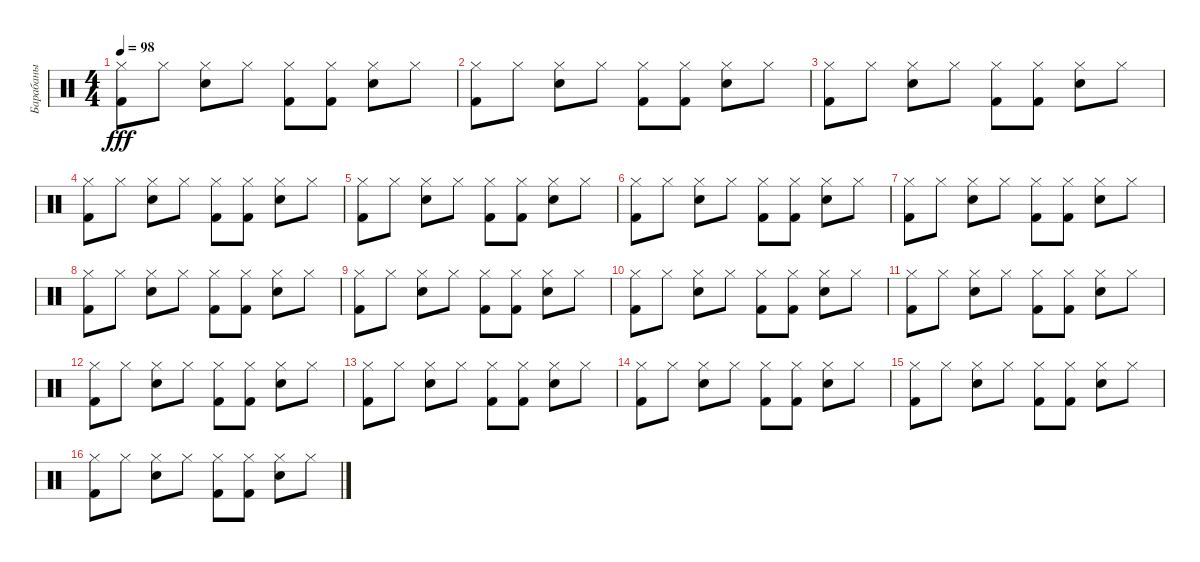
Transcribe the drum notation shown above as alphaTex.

\track ("Барабаны" "Барабаны") {instrument percussion}
\staff {score}
\articulation defaults
\ts (4 4)
\tempo 98
\clef neutral
\ks c
("Hi-Hat (closed)" "Kick (hit) 2").8{dy fff} "Hi-Hat (closed)".8 ("Hi-Hat (closed)" "Snare (hit) 2").8 "Hi-Hat (closed)".8 ("Hi-Hat (closed)" "Kick (hit) 2").8 ("Hi-Hat (closed)" "Kick (hit) 2").8 ("Hi-Hat (closed)" "Snare (hit) 2").8 "Hi-Hat (closed)".8 |
("Hi-Hat (closed)" "Kick (hit) 2").8 "Hi-Hat (closed)".8 ("Hi-Hat (closed)" "Snare (hit) 2").8 "Hi-Hat (closed)".8 ("Hi-Hat (closed)" "Kick (hit) 2").8 ("Hi-Hat (closed)" "Kick (hit) 2").8 ("Hi-Hat (closed)" "Snare (hit) 2").8 "Hi-Hat (closed)".8 |
("Hi-Hat (closed)" "Kick (hit) 2").8 "Hi-Hat (closed)".8 ("Hi-Hat (closed)" "Snare (hit) 2").8 "Hi-Hat (closed)".8 ("Hi-Hat (closed)" "Kick (hit) 2").8 ("Hi-Hat (closed)" "Kick (hit) 2").8 ("Hi-Hat (closed)" "Snare (hit) 2").8 "Hi-Hat (closed)".8 |
("Hi-Hat (closed)" "Kick (hit) 2").8 "Hi-Hat (closed)".8 ("Hi-Hat (closed)" "Snare (hit) 2").8 "Hi-Hat (closed)".8 ("Hi-Hat (closed)" "Kick (hit) 2").8 ("Hi-Hat (closed)" "Kick (hit) 2").8 ("Hi-Hat (closed)" "Snare (hit) 2").8 "Hi-Hat (closed)".8 |
("Hi-Hat (closed)" "Kick (hit) 2").8 "Hi-Hat (closed)".8 ("Hi-Hat (closed)" "Snare (hit) 2").8 "Hi-Hat (closed)".8 ("Hi-Hat (closed)" "Kick (hit) 2").8 ("Hi-Hat (closed)" "Kick (hit) 2").8 ("Hi-Hat (closed)" "Snare (hit) 2").8 "Hi-Hat (closed)".8 |
("Hi-Hat (closed)" "Kick (hit) 2").8 "Hi-Hat (closed)".8 ("Hi-Hat (closed)" "Snare (hit) 2").8 "Hi-Hat (closed)".8 ("Hi-Hat (closed)" "Kick (hit) 2").8 ("Hi-Hat (closed)" "Kick (hit) 2").8 ("Hi-Hat (closed)" "Snare (hit) 2").8 "Hi-Hat (closed)".8 |
("Hi-Hat (closed)" "Kick (hit) 2").8 "Hi-Hat (closed)".8 ("Hi-Hat (closed)" "Snare (hit) 2").8 "Hi-Hat (closed)".8 ("Hi-Hat (closed)" "Kick (hit) 2").8 ("Hi-Hat (closed)" "Kick (hit) 2").8 ("Hi-Hat (closed)" "Snare (hit) 2").8 "Hi-Hat (closed)".8 |
("Hi-Hat (closed)" "Kick (hit) 2").8 "Hi-Hat (closed)".8 ("Hi-Hat (closed)" "Snare (hit) 2").8 "Hi-Hat (closed)".8 ("Hi-Hat (closed)" "Kick (hit) 2").8 ("Hi-Hat (closed)" "Kick (hit) 2").8 ("Hi-Hat (closed)" "Snare (hit) 2").8 "Hi-Hat (closed)".8 |
("Hi-Hat (closed)" "Kick (hit) 2").8 "Hi-Hat (closed)".8 ("Hi-Hat (closed)" "Snare (hit) 2").8 "Hi-Hat (closed)".8 ("Hi-Hat (closed)" "Kick (hit) 2").8 ("Hi-Hat (closed)" "Kick (hit) 2").8 ("Hi-Hat (closed)" "Snare (hit) 2").8 "Hi-Hat (closed)".8 |
("Hi-Hat (closed)" "Kick (hit) 2").8 "Hi-Hat (closed)".8 ("Hi-Hat (closed)" "Snare (hit) 2").8 "Hi-Hat (closed)".8 ("Hi-Hat (closed)" "Kick (hit) 2").8 ("Hi-Hat (closed)" "Kick (hit) 2").8 ("Hi-Hat (closed)" "Snare (hit) 2").8 "Hi-Hat (closed)".8 |
("Hi-Hat (closed)" "Kick (hit) 2").8 "Hi-Hat (closed)".8 ("Hi-Hat (closed)" "Snare (hit) 2").8 "Hi-Hat (closed)".8 ("Hi-Hat (closed)" "Kick (hit) 2").8 ("Hi-Hat (closed)" "Kick (hit) 2").8 ("Hi-Hat (closed)" "Snare (hit) 2").8 "Hi-Hat (closed)".8 |
("Hi-Hat (closed)" "Kick (hit) 2").8 "Hi-Hat (closed)".8 ("Hi-Hat (closed)" "Snare (hit) 2").8 "Hi-Hat (closed)".8 ("Hi-Hat (closed)" "Kick (hit) 2").8 ("Hi-Hat (closed)" "Kick (hit) 2").8 ("Hi-Hat (closed)" "Snare (hit) 2").8 "Hi-Hat (closed)".8 |
("Hi-Hat (closed)" "Kick (hit) 2").8 "Hi-Hat (closed)".8 ("Hi-Hat (closed)" "Snare (hit) 2").8 "Hi-Hat (closed)".8 ("Hi-Hat (closed)" "Kick (hit) 2").8 ("Hi-Hat (closed)" "Kick (hit) 2").8 ("Hi-Hat (closed)" "Snare (hit) 2").8 "Hi-Hat (closed)".8 |
("Hi-Hat (closed)" "Kick (hit) 2").8 "Hi-Hat (closed)".8 ("Hi-Hat (closed)" "Snare (hit) 2").8 "Hi-Hat (closed)".8 ("Hi-Hat (closed)" "Kick (hit) 2").8 ("Hi-Hat (closed)" "Kick (hit) 2").8 ("Hi-Hat (closed)" "Snare (hit) 2").8 "Hi-Hat (closed)".8 |
("Hi-Hat (closed)" "Kick (hit) 2").8 "Hi-Hat (closed)".8 ("Hi-Hat (closed)" "Snare (hit) 2").8 "Hi-Hat (closed)".8 ("Hi-Hat (closed)" "Kick (hit) 2").8 ("Hi-Hat (closed)" "Kick (hit) 2").8 ("Hi-Hat (closed)" "Snare (hit) 2").8 "Hi-Hat (closed)".8 |
("Hi-Hat (closed)" "Kick (hit) 2").8 "Hi-Hat (closed)".8 ("Hi-Hat (closed)" "Snare (hit) 2").8 "Hi-Hat (closed)".8 ("Hi-Hat (closed)" "Kick (hit) 2").8 ("Hi-Hat (closed)" "Kick (hit) 2").8 ("Hi-Hat (closed)" "Snare (hit) 2").8 "Hi-Hat (closed)".8
